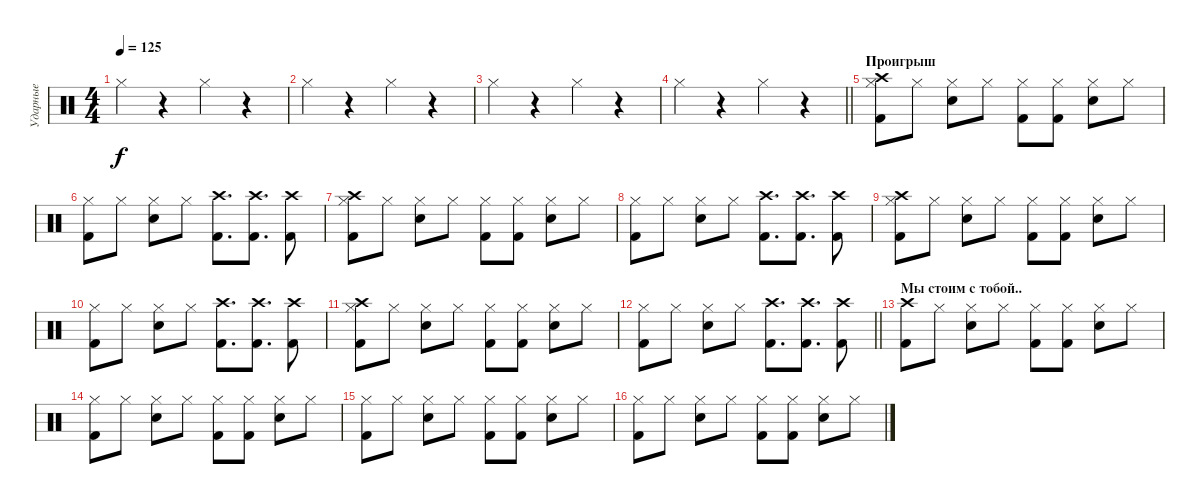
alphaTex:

\track ("Ударные" "Ударные") {instrument percussion}
\staff {score}
\articulation defaults
\ts (4 4)
\tempo 125
\clef neutral
\ks c "Hi-Hat (closed)".4{dy f}
r.4 "Hi-Hat (closed)".4 r.4 |
"Hi-Hat (closed)".4 r.4 "Hi-Hat (closed)".4 r.4 |
"Hi-Hat (closed)".4 r.4 "Hi-Hat (closed)".4 r.4 |
\barLineRight lightlight "Hi-Hat (closed)".4
r.4 "Hi-Hat (closed)".4 r.4 |
\section ("" "Проигрыш")
("Crash high (hit)" "Kick (hit) 2" "Hi-Hat (closed)").8 "Hi-Hat (closed)".8 ("Snare (hit) 2" "Hi-Hat (closed)").8 "Hi-Hat (closed)".8 ("Kick (hit) 2" "Hi-Hat (closed)").8 ("Kick (hit) 2" "Hi-Hat (closed)").8 ("Snare (hit) 2" "Hi-Hat (closed)").8 "Hi-Hat (closed)".8 |
("Kick (hit) 2" "Hi-Hat (closed)").8 "Hi-Hat (closed)".8 ("Snare (hit) 2" "Hi-Hat (closed)").8 "Hi-Hat (closed)".8 ("Crash high (hit)" "Kick (hit) 2").8{d} ("Crash high (hit)" "Kick (hit) 2").8{d} ("Crash high (hit)" "Kick (hit) 2").8 |
("Crash high (hit)" "Kick (hit) 2" "Hi-Hat (closed)").8 "Hi-Hat (closed)".8 ("Snare (hit) 2" "Hi-Hat (closed)").8 "Hi-Hat (closed)".8 ("Kick (hit) 2" "Hi-Hat (closed)").8 ("Kick (hit) 2" "Hi-Hat (closed)").8 ("Snare (hit) 2" "Hi-Hat (closed)").8 "Hi-Hat (closed)".8 |
("Kick (hit) 2" "Hi-Hat (closed)").8 "Hi-Hat (closed)".8 ("Snare (hit) 2" "Hi-Hat (closed)").8 "Hi-Hat (closed)".8 ("Crash high (hit)" "Kick (hit) 2").8{d} ("Crash high (hit)" "Kick (hit) 2").8{d} ("Crash high (hit)" "Kick (hit) 2").8 |
("Crash high (hit)" "Kick (hit) 2" "Hi-Hat (closed)").8 "Hi-Hat (closed)".8 ("Snare (hit) 2" "Hi-Hat (closed)").8 "Hi-Hat (closed)".8 ("Kick (hit) 2" "Hi-Hat (closed)").8 ("Kick (hit) 2" "Hi-Hat (closed)").8 ("Snare (hit) 2" "Hi-Hat (closed)").8 "Hi-Hat (closed)".8 |
("Kick (hit) 2" "Hi-Hat (closed)").8 "Hi-Hat (closed)".8 ("Snare (hit) 2" "Hi-Hat (closed)").8 "Hi-Hat (closed)".8 ("Crash high (hit)" "Kick (hit) 2").8{d} ("Crash high (hit)" "Kick (hit) 2").8{d} ("Crash high (hit)" "Kick (hit) 2").8 |
("Crash high (hit)" "Kick (hit) 2" "Hi-Hat (closed)").8 "Hi-Hat (closed)".8 ("Snare (hit) 2" "Hi-Hat (closed)").8 "Hi-Hat (closed)".8 ("Kick (hit) 2" "Hi-Hat (closed)").8 ("Kick (hit) 2" "Hi-Hat (closed)").8 ("Snare (hit) 2" "Hi-Hat (closed)").8 "Hi-Hat (closed)".8 |
\barLineRight lightlight
("Kick (hit) 2" "Hi-Hat (closed)").8 "Hi-Hat (closed)".8 ("Snare (hit) 2" "Hi-Hat (closed)").8 "Hi-Hat (closed)".8 ("Crash high (hit)" "Kick (hit) 2").8{d} ("Crash high (hit)" "Kick (hit) 2").8{d} ("Crash high (hit)" "Kick (hit) 2").8 |
\section ("" "Мы стоим с тобой..")
("Crash high (hit)" "Kick (hit) 2").8 "Hi-Hat (closed)".8 ("Snare (hit) 2" "Hi-Hat (closed)").8 "Hi-Hat (closed)".8 ("Kick (hit) 2" "Hi-Hat (closed)").8 ("Kick (hit) 2" "Hi-Hat (closed)").8 ("Snare (hit) 2" "Hi-Hat (closed)").8 "Hi-Hat (closed)".8 |
("Kick (hit) 2" "Hi-Hat (closed)").8 "Hi-Hat (closed)".8 ("Snare (hit) 2" "Hi-Hat (closed)").8 "Hi-Hat (closed)".8 ("Kick (hit) 2" "Hi-Hat (closed)").8 ("Kick (hit) 2" "Hi-Hat (closed)").8 ("Snare (hit) 2" "Hi-Hat (closed)").8 "Hi-Hat (closed)".8 |
("Kick (hit) 2" "Hi-Hat (closed)").8 "Hi-Hat (closed)".8 ("Snare (hit) 2" "Hi-Hat (closed)").8 "Hi-Hat (closed)".8 ("Kick (hit) 2" "Hi-Hat (closed)").8 ("Kick (hit) 2" "Hi-Hat (closed)").8 ("Snare (hit) 2" "Hi-Hat (closed)").8 "Hi-Hat (closed)".8 |
("Kick (hit) 2" "Hi-Hat (closed)").8 "Hi-Hat (closed)".8 ("Snare (hit) 2" "Hi-Hat (closed)").8 "Hi-Hat (closed)".8 ("Kick (hit) 2" "Hi-Hat (closed)").8 ("Kick (hit) 2" "Hi-Hat (closed)").8 ("Snare (hit) 2" "Hi-Hat (closed)").8 "Hi-Hat (closed)".8
